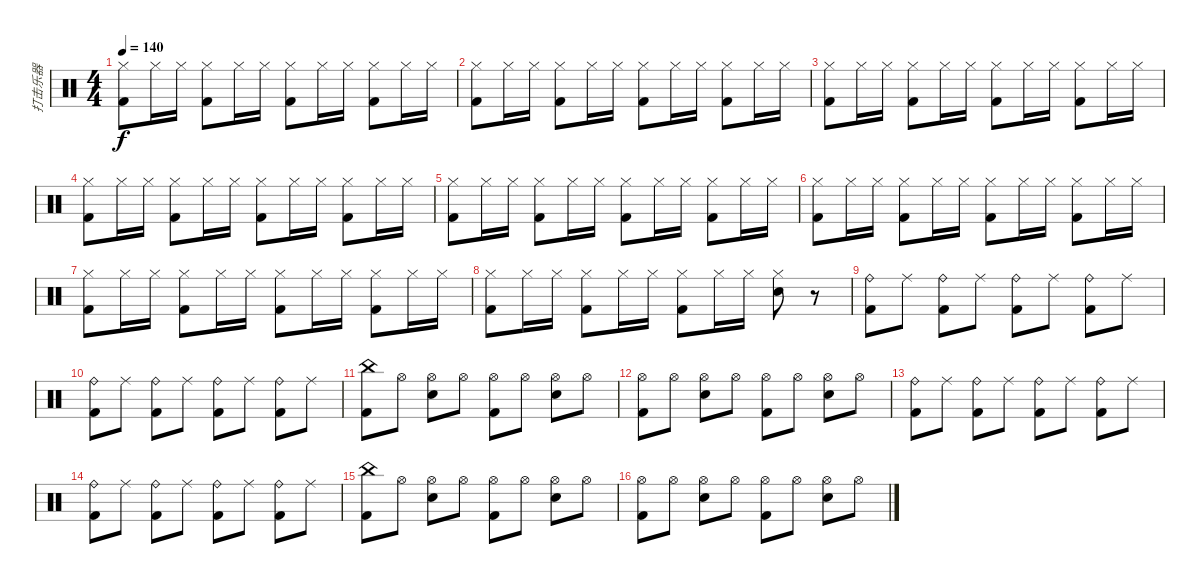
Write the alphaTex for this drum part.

\track ("打击乐器" "打击乐器") {instrument percussion}
\staff {score}
\articulation defaults
\ts (4 4)
\tempo 140
\clef neutral
\ks c
("Hi-Hat (closed)" "Kick (hit) 2").8{dy f} "Hi-Hat (closed)".16 "Hi-Hat (closed)".16 ("Hi-Hat (closed)" "Kick (hit) 2").8 "Hi-Hat (closed)".16 "Hi-Hat (closed)".16 ("Hi-Hat (closed)" "Kick (hit) 2").8 "Hi-Hat (closed)".16 "Hi-Hat (closed)".16 ("Hi-Hat (closed)" "Kick (hit) 2").8 "Hi-Hat (closed)".16 "Hi-Hat (closed)".16 |
("Hi-Hat (closed)" "Kick (hit) 2").8 "Hi-Hat (closed)".16 "Hi-Hat (closed)".16 ("Hi-Hat (closed)" "Kick (hit) 2").8 "Hi-Hat (closed)".16 "Hi-Hat (closed)".16 ("Hi-Hat (closed)" "Kick (hit) 2").8 "Hi-Hat (closed)".16 "Hi-Hat (closed)".16 ("Hi-Hat (closed)" "Kick (hit) 2").8 "Hi-Hat (closed)".16 "Hi-Hat (closed)".16 |
("Hi-Hat (closed)" "Kick (hit) 2").8 "Hi-Hat (closed)".16 "Hi-Hat (closed)".16 ("Hi-Hat (closed)" "Kick (hit) 2").8 "Hi-Hat (closed)".16 "Hi-Hat (closed)".16 ("Hi-Hat (closed)" "Kick (hit) 2").8 "Hi-Hat (closed)".16 "Hi-Hat (closed)".16 ("Hi-Hat (closed)" "Kick (hit) 2").8 "Hi-Hat (closed)".16 "Hi-Hat (closed)".16 |
("Hi-Hat (closed)" "Kick (hit) 2").8 "Hi-Hat (closed)".16 "Hi-Hat (closed)".16 ("Hi-Hat (closed)" "Kick (hit) 2").8 "Hi-Hat (closed)".16 "Hi-Hat (closed)".16 ("Hi-Hat (closed)" "Kick (hit) 2").8 "Hi-Hat (closed)".16 "Hi-Hat (closed)".16 ("Hi-Hat (closed)" "Kick (hit) 2").8 "Hi-Hat (closed)".16 "Hi-Hat (closed)".16 |
("Hi-Hat (closed)" "Kick (hit) 2").8 "Hi-Hat (closed)".16 "Hi-Hat (closed)".16 ("Hi-Hat (closed)" "Kick (hit) 2").8 "Hi-Hat (closed)".16 "Hi-Hat (closed)".16 ("Hi-Hat (closed)" "Kick (hit) 2").8 "Hi-Hat (closed)".16 "Hi-Hat (closed)".16 ("Hi-Hat (closed)" "Kick (hit) 2").8 "Hi-Hat (closed)".16 "Hi-Hat (closed)".16 |
("Hi-Hat (closed)" "Kick (hit) 2").8 "Hi-Hat (closed)".16 "Hi-Hat (closed)".16 ("Hi-Hat (closed)" "Kick (hit) 2").8 "Hi-Hat (closed)".16 "Hi-Hat (closed)".16 ("Hi-Hat (closed)" "Kick (hit) 2").8 "Hi-Hat (closed)".16 "Hi-Hat (closed)".16 ("Hi-Hat (closed)" "Kick (hit) 2").8 "Hi-Hat (closed)".16 "Hi-Hat (closed)".16 |
("Hi-Hat (closed)" "Kick (hit) 2").8 "Hi-Hat (closed)".16 "Hi-Hat (closed)".16 ("Hi-Hat (closed)" "Kick (hit) 2").8 "Hi-Hat (closed)".16 "Hi-Hat (closed)".16 ("Hi-Hat (closed)" "Kick (hit) 2").8 "Hi-Hat (closed)".16 "Hi-Hat (closed)".16 ("Hi-Hat (closed)" "Kick (hit) 2").8 "Hi-Hat (closed)".16 "Hi-Hat (closed)".16 |
("Hi-Hat (closed)" "Kick (hit) 2").8 "Hi-Hat (closed)".16 "Hi-Hat (closed)".16 ("Hi-Hat (closed)" "Kick (hit) 2").8 "Hi-Hat (closed)".16 "Hi-Hat (closed)".16 ("Hi-Hat (closed)" "Kick (hit) 2").8 "Hi-Hat (closed)".16 "Hi-Hat (closed)".16 ("Hi-Hat (closed)" "Snare (hit) 2").8 r.8 |
("Ride (bell)" "Kick (hit) 2").8 "Ride (middle)".8 ("Ride (bell)" "Kick (hit) 2").8 "Ride (middle)".8 ("Ride (bell)" "Kick (hit) 2").8 "Ride (middle)".8 ("Ride (bell)" "Kick (hit) 2").8 "Ride (middle)".8 |
("Ride (bell)" "Kick (hit) 2").8 "Ride (middle)".8 ("Ride (bell)" "Kick (hit) 2").8 "Ride (middle)".8 ("Ride (bell)" "Kick (hit) 2").8 "Ride (middle)".8 ("Ride (bell)" "Kick (hit) 2").8 "Ride (middle)".8 |
("China (hit)" "Kick (hit) 2").8 "Hi-Hat (open)".8 ("Hi-Hat (open)" "Snare (hit) 2").8 "Hi-Hat (open)".8 ("Hi-Hat (open)" "Kick (hit) 2").8 "Hi-Hat (open)".8 ("Hi-Hat (open)" "Snare (hit) 2").8 "Hi-Hat (open)".8 |
("Hi-Hat (open)" "Kick (hit) 2").8 "Hi-Hat (open)".8 ("Hi-Hat (open)" "Snare (hit) 2").8 "Hi-Hat (open)".8 ("Hi-Hat (open)" "Kick (hit) 2").8 "Hi-Hat (open)".8 ("Hi-Hat (open)" "Snare (hit) 2").8 "Hi-Hat (open)".8 |
("Ride (bell)" "Kick (hit) 2").8 "Ride (middle)".8 ("Ride (bell)" "Kick (hit) 2").8 "Ride (middle)".8 ("Ride (bell)" "Kick (hit) 2").8 "Ride (middle)".8 ("Ride (bell)" "Kick (hit) 2").8 "Ride (middle)".8 |
("Ride (bell)" "Kick (hit) 2").8 "Ride (middle)".8 ("Ride (bell)" "Kick (hit) 2").8 "Ride (middle)".8 ("Ride (bell)" "Kick (hit) 2").8 "Ride (middle)".8 ("Ride (bell)" "Kick (hit) 2").8 "Ride (middle)".8 |
("China (hit)" "Kick (hit) 2").8 "Hi-Hat (open)".8 ("Hi-Hat (open)" "Snare (hit) 2").8 "Hi-Hat (open)".8 ("Hi-Hat (open)" "Kick (hit) 2").8 "Hi-Hat (open)".8 ("Hi-Hat (open)" "Snare (hit) 2").8 "Hi-Hat (open)".8 |
("Hi-Hat (open)" "Kick (hit) 2").8 "Hi-Hat (open)".8 ("Hi-Hat (open)" "Snare (hit) 2").8 "Hi-Hat (open)".8 ("Hi-Hat (open)" "Kick (hit) 2").8 "Hi-Hat (open)".8 ("Hi-Hat (open)" "Snare (hit) 2").8 "Hi-Hat (open)".8
